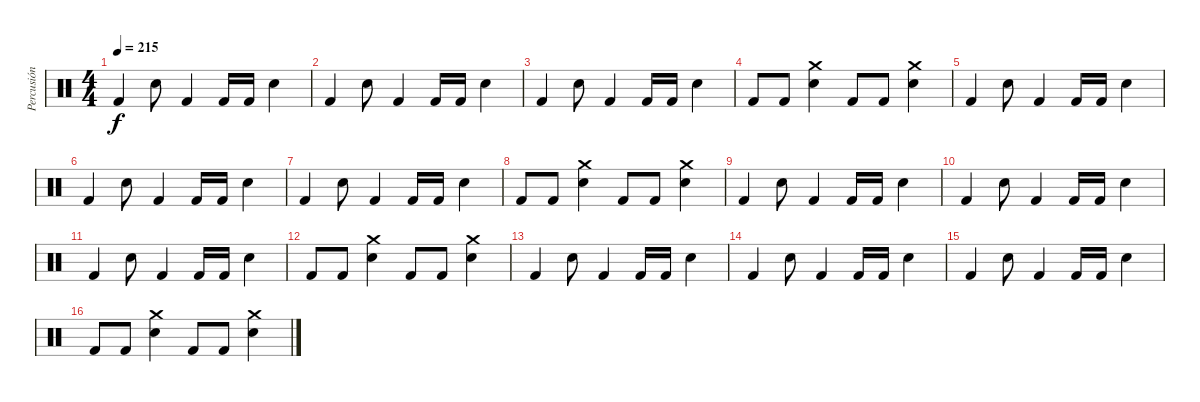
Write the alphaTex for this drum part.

\track ("Percusión" "Percusión") {instrument percussion}
\staff {score}
\articulation defaults
\ts (4 4)
\tempo 215
\clef neutral
\ks c "Kick (hit) 2".4{dy f} "Snare (hit) 2".8 "Kick (hit) 2".4 "Kick (hit) 2".16 "Kick (hit) 2".16 "Snare (hit) 2".4
|
"Kick (hit) 2".4 "Snare (hit) 2".8 "Kick (hit) 2".4 "Kick (hit) 2".16 "Kick (hit) 2".16 "Snare (hit) 2".4 |
"Kick (hit) 2".4 "Snare (hit) 2".8 "Kick (hit) 2".4 "Kick (hit) 2".16 "Kick (hit) 2".16 "Snare (hit) 2".4 |
"Kick (hit) 2".8 "Kick (hit) 2".8 ("Crash medium (hit)" "Snare (hit) 2").4 "Kick (hit) 2".8 "Kick (hit) 2".8 ("Crash medium (hit)" "Snare (hit) 2").4 |
"Kick (hit) 2".4 "Snare (hit) 2".8 "Kick (hit) 2".4 "Kick (hit) 2".16 "Kick (hit) 2".16 "Snare (hit) 2".4 |
"Kick (hit) 2".4 "Snare (hit) 2".8 "Kick (hit) 2".4 "Kick (hit) 2".16 "Kick (hit) 2".16 "Snare (hit) 2".4 |
"Kick (hit) 2".4 "Snare (hit) 2".8 "Kick (hit) 2".4 "Kick (hit) 2".16 "Kick (hit) 2".16 "Snare (hit) 2".4 |
"Kick (hit) 2".8 "Kick (hit) 2".8 ("Crash medium (hit)" "Snare (hit) 2").4 "Kick (hit) 2".8 "Kick (hit) 2".8 ("Crash medium (hit)" "Snare (hit) 2").4 |
"Kick (hit) 2".4 "Snare (hit) 2".8 "Kick (hit) 2".4 "Kick (hit) 2".16 "Kick (hit) 2".16 "Snare (hit) 2".4 |
"Kick (hit) 2".4 "Snare (hit) 2".8 "Kick (hit) 2".4 "Kick (hit) 2".16 "Kick (hit) 2".16 "Snare (hit) 2".4 |
"Kick (hit) 2".4 "Snare (hit) 2".8 "Kick (hit) 2".4 "Kick (hit) 2".16 "Kick (hit) 2".16 "Snare (hit) 2".4 |
"Kick (hit) 2".8 "Kick (hit) 2".8 ("Crash medium (hit)" "Snare (hit) 2").4 "Kick (hit) 2".8 "Kick (hit) 2".8 ("Crash medium (hit)" "Snare (hit) 2").4 |
"Kick (hit) 2".4 "Snare (hit) 2".8 "Kick (hit) 2".4 "Kick (hit) 2".16 "Kick (hit) 2".16 "Snare (hit) 2".4 |
"Kick (hit) 2".4 "Snare (hit) 2".8 "Kick (hit) 2".4 "Kick (hit) 2".16 "Kick (hit) 2".16 "Snare (hit) 2".4 |
"Kick (hit) 2".4 "Snare (hit) 2".8 "Kick (hit) 2".4 "Kick (hit) 2".16 "Kick (hit) 2".16 "Snare (hit) 2".4 |
"Kick (hit) 2".8 "Kick (hit) 2".8 ("Crash medium (hit)" "Snare (hit) 2").4 "Kick (hit) 2".8 "Kick (hit) 2".8 ("Crash medium (hit)" "Snare (hit) 2").4
